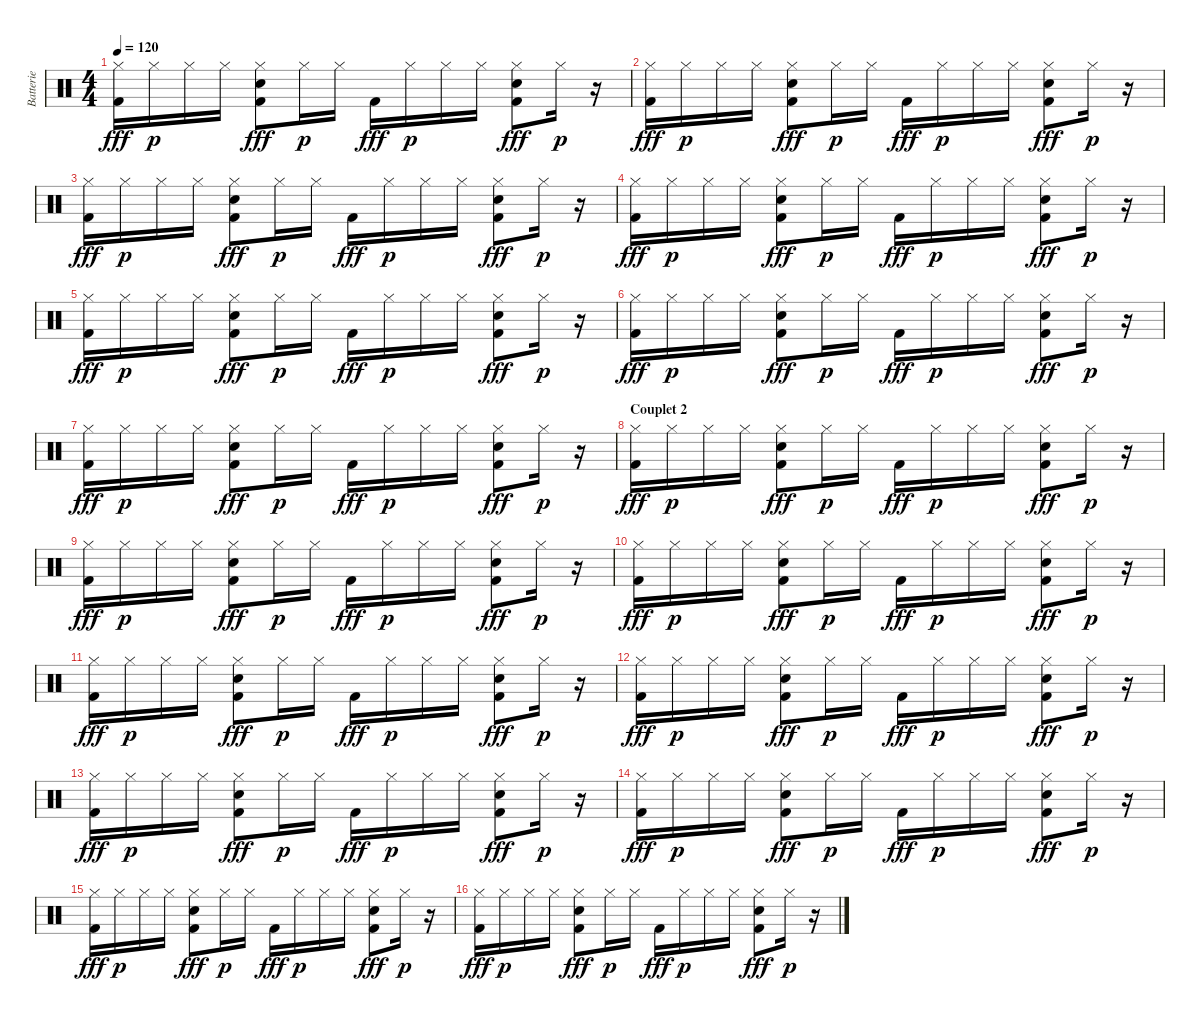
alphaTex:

\track ("Batterie" "Batterie") {instrument percussion}
\staff {score}
\articulation defaults
\ts (4 4)
\tempo 120
\clef neutral
\ks c
("Hi-Hat (closed)" "Kick (hit) 2").16{dy fff} "Hi-Hat (closed)".16{dy p} "Hi-Hat (closed)".16 "Hi-Hat (closed)".16 ("Hi-Hat (closed)" "Hand Clap (hit)" "Kick (hit) 2").8{dy fff} "Hi-Hat (closed)".16{dy p} "Hi-Hat (closed)".16 "Kick (hit) 2".16{dy fff} "Hi-Hat (closed)".16{dy p} "Hi-Hat (closed)".16 "Hi-Hat (closed)".16 ("Hi-Hat (closed)" "Hand Clap (hit)" "Kick (hit) 2").8{dy fff} "Hi-Hat (closed)".16{dy p} r.16 |
("Hi-Hat (closed)" "Kick (hit) 2").16{dy fff} "Hi-Hat (closed)".16{dy p} "Hi-Hat (closed)".16 "Hi-Hat (closed)".16 ("Hi-Hat (closed)" "Hand Clap (hit)" "Kick (hit) 2").8{dy fff} "Hi-Hat (closed)".16{dy p} "Hi-Hat (closed)".16 "Kick (hit) 2".16{dy fff} "Hi-Hat (closed)".16{dy p} "Hi-Hat (closed)".16 "Hi-Hat (closed)".16 ("Hi-Hat (closed)" "Hand Clap (hit)" "Kick (hit) 2").8{dy fff} "Hi-Hat (closed)".16{dy p} r.16 |
("Hi-Hat (closed)" "Kick (hit) 2").16{dy fff} "Hi-Hat (closed)".16{dy p} "Hi-Hat (closed)".16 "Hi-Hat (closed)".16 ("Hi-Hat (closed)" "Hand Clap (hit)" "Kick (hit) 2").8{dy fff} "Hi-Hat (closed)".16{dy p} "Hi-Hat (closed)".16 "Kick (hit) 2".16{dy fff} "Hi-Hat (closed)".16{dy p} "Hi-Hat (closed)".16 "Hi-Hat (closed)".16 ("Hi-Hat (closed)" "Hand Clap (hit)" "Kick (hit) 2").8{dy fff} "Hi-Hat (closed)".16{dy p} r.16 |
("Hi-Hat (closed)" "Kick (hit) 2").16{dy fff} "Hi-Hat (closed)".16{dy p} "Hi-Hat (closed)".16 "Hi-Hat (closed)".16 ("Hi-Hat (closed)" "Hand Clap (hit)" "Kick (hit) 2").8{dy fff} "Hi-Hat (closed)".16{dy p} "Hi-Hat (closed)".16 "Kick (hit) 2".16{dy fff} "Hi-Hat (closed)".16{dy p} "Hi-Hat (closed)".16 "Hi-Hat (closed)".16 ("Hi-Hat (closed)" "Hand Clap (hit)" "Kick (hit) 2").8{dy fff} "Hi-Hat (closed)".16{dy p} r.16 |
("Hi-Hat (closed)" "Kick (hit) 2").16{dy fff} "Hi-Hat (closed)".16{dy p} "Hi-Hat (closed)".16 "Hi-Hat (closed)".16 ("Hi-Hat (closed)" "Hand Clap (hit)" "Kick (hit) 2").8{dy fff} "Hi-Hat (closed)".16{dy p} "Hi-Hat (closed)".16 "Kick (hit) 2".16{dy fff} "Hi-Hat (closed)".16{dy p} "Hi-Hat (closed)".16 "Hi-Hat (closed)".16 ("Hi-Hat (closed)" "Hand Clap (hit)" "Kick (hit) 2").8{dy fff} "Hi-Hat (closed)".16{dy p} r.16 |
("Hi-Hat (closed)" "Kick (hit) 2").16{dy fff} "Hi-Hat (closed)".16{dy p} "Hi-Hat (closed)".16 "Hi-Hat (closed)".16 ("Hi-Hat (closed)" "Hand Clap (hit)" "Kick (hit) 2").8{dy fff} "Hi-Hat (closed)".16{dy p} "Hi-Hat (closed)".16 "Kick (hit) 2".16{dy fff} "Hi-Hat (closed)".16{dy p} "Hi-Hat (closed)".16 "Hi-Hat (closed)".16 ("Hi-Hat (closed)" "Hand Clap (hit)" "Kick (hit) 2").8{dy fff} "Hi-Hat (closed)".16{dy p} r.16 |
("Hi-Hat (closed)" "Kick (hit) 2").16{dy fff} "Hi-Hat (closed)".16{dy p} "Hi-Hat (closed)".16 "Hi-Hat (closed)".16 ("Hi-Hat (closed)" "Hand Clap (hit)" "Kick (hit) 2").8{dy fff} "Hi-Hat (closed)".16{dy p} "Hi-Hat (closed)".16 "Kick (hit) 2".16{dy fff} "Hi-Hat (closed)".16{dy p} "Hi-Hat (closed)".16 "Hi-Hat (closed)".16 ("Hi-Hat (closed)" "Hand Clap (hit)" "Kick (hit) 2").8{dy fff} "Hi-Hat (closed)".16{dy p} r.16 |
\section ("" "Couplet 2")
("Hi-Hat (closed)" "Kick (hit) 2").16{dy fff} "Hi-Hat (closed)".16{dy p} "Hi-Hat (closed)".16 "Hi-Hat (closed)".16 ("Hi-Hat (closed)" "Hand Clap (hit)" "Kick (hit) 2").8{dy fff} "Hi-Hat (closed)".16{dy p} "Hi-Hat (closed)".16 "Kick (hit) 2".16{dy fff} "Hi-Hat (closed)".16{dy p} "Hi-Hat (closed)".16 "Hi-Hat (closed)".16 ("Hi-Hat (closed)" "Hand Clap (hit)" "Kick (hit) 2").8{dy fff} "Hi-Hat (closed)".16{dy p} r.16 |
("Hi-Hat (closed)" "Kick (hit) 2").16{dy fff} "Hi-Hat (closed)".16{dy p} "Hi-Hat (closed)".16 "Hi-Hat (closed)".16 ("Hi-Hat (closed)" "Hand Clap (hit)" "Kick (hit) 2").8{dy fff} "Hi-Hat (closed)".16{dy p} "Hi-Hat (closed)".16 "Kick (hit) 2".16{dy fff} "Hi-Hat (closed)".16{dy p} "Hi-Hat (closed)".16 "Hi-Hat (closed)".16 ("Hi-Hat (closed)" "Hand Clap (hit)" "Kick (hit) 2").8{dy fff} "Hi-Hat (closed)".16{dy p} r.16 |
("Hi-Hat (closed)" "Kick (hit) 2").16{dy fff} "Hi-Hat (closed)".16{dy p} "Hi-Hat (closed)".16 "Hi-Hat (closed)".16 ("Hi-Hat (closed)" "Hand Clap (hit)" "Kick (hit) 2").8{dy fff} "Hi-Hat (closed)".16{dy p} "Hi-Hat (closed)".16 "Kick (hit) 2".16{dy fff} "Hi-Hat (closed)".16{dy p} "Hi-Hat (closed)".16 "Hi-Hat (closed)".16 ("Hi-Hat (closed)" "Hand Clap (hit)" "Kick (hit) 2").8{dy fff} "Hi-Hat (closed)".16{dy p} r.16 |
("Hi-Hat (closed)" "Kick (hit) 2").16{dy fff} "Hi-Hat (closed)".16{dy p} "Hi-Hat (closed)".16 "Hi-Hat (closed)".16 ("Hi-Hat (closed)" "Hand Clap (hit)" "Kick (hit) 2").8{dy fff} "Hi-Hat (closed)".16{dy p} "Hi-Hat (closed)".16 "Kick (hit) 2".16{dy fff} "Hi-Hat (closed)".16{dy p} "Hi-Hat (closed)".16 "Hi-Hat (closed)".16 ("Hi-Hat (closed)" "Hand Clap (hit)" "Kick (hit) 2").8{dy fff} "Hi-Hat (closed)".16{dy p} r.16 |
("Hi-Hat (closed)" "Kick (hit) 2").16{dy fff} "Hi-Hat (closed)".16{dy p} "Hi-Hat (closed)".16 "Hi-Hat (closed)".16 ("Hi-Hat (closed)" "Hand Clap (hit)" "Kick (hit) 2").8{dy fff} "Hi-Hat (closed)".16{dy p} "Hi-Hat (closed)".16 "Kick (hit) 2".16{dy fff} "Hi-Hat (closed)".16{dy p} "Hi-Hat (closed)".16 "Hi-Hat (closed)".16 ("Hi-Hat (closed)" "Hand Clap (hit)" "Kick (hit) 2").8{dy fff} "Hi-Hat (closed)".16{dy p} r.16 |
("Hi-Hat (closed)" "Kick (hit) 2").16{dy fff} "Hi-Hat (closed)".16{dy p} "Hi-Hat (closed)".16 "Hi-Hat (closed)".16 ("Hi-Hat (closed)" "Hand Clap (hit)" "Kick (hit) 2").8{dy fff} "Hi-Hat (closed)".16{dy p} "Hi-Hat (closed)".16 "Kick (hit) 2".16{dy fff} "Hi-Hat (closed)".16{dy p} "Hi-Hat (closed)".16 "Hi-Hat (closed)".16 ("Hi-Hat (closed)" "Hand Clap (hit)" "Kick (hit) 2").8{dy fff} "Hi-Hat (closed)".16{dy p} r.16 |
("Hi-Hat (closed)" "Kick (hit) 2").16{dy fff} "Hi-Hat (closed)".16{dy p} "Hi-Hat (closed)".16 "Hi-Hat (closed)".16 ("Hi-Hat (closed)" "Hand Clap (hit)" "Kick (hit) 2").8{dy fff} "Hi-Hat (closed)".16{dy p} "Hi-Hat (closed)".16 "Kick (hit) 2".16{dy fff} "Hi-Hat (closed)".16{dy p} "Hi-Hat (closed)".16 "Hi-Hat (closed)".16 ("Hi-Hat (closed)" "Hand Clap (hit)" "Kick (hit) 2").8{dy fff} "Hi-Hat (closed)".16{dy p} r.16 |
("Hi-Hat (closed)" "Kick (hit) 2").16{dy fff} "Hi-Hat (closed)".16{dy p} "Hi-Hat (closed)".16 "Hi-Hat (closed)".16 ("Hi-Hat (closed)" "Hand Clap (hit)" "Kick (hit) 2").8{dy fff} "Hi-Hat (closed)".16{dy p} "Hi-Hat (closed)".16 "Kick (hit) 2".16{dy fff} "Hi-Hat (closed)".16{dy p} "Hi-Hat (closed)".16 "Hi-Hat (closed)".16 ("Hi-Hat (closed)" "Hand Clap (hit)" "Kick (hit) 2").8{dy fff} "Hi-Hat (closed)".16{dy p} r.16 |
("Hi-Hat (closed)" "Kick (hit) 2").16{dy fff} "Hi-Hat (closed)".16{dy p} "Hi-Hat (closed)".16 "Hi-Hat (closed)".16 ("Hi-Hat (closed)" "Hand Clap (hit)" "Kick (hit) 2").8{dy fff} "Hi-Hat (closed)".16{dy p} "Hi-Hat (closed)".16 "Kick (hit) 2".16{dy fff} "Hi-Hat (closed)".16{dy p} "Hi-Hat (closed)".16 "Hi-Hat (closed)".16 ("Hi-Hat (closed)" "Hand Clap (hit)" "Kick (hit) 2").8{dy fff} "Hi-Hat (closed)".16{dy p} r.16
